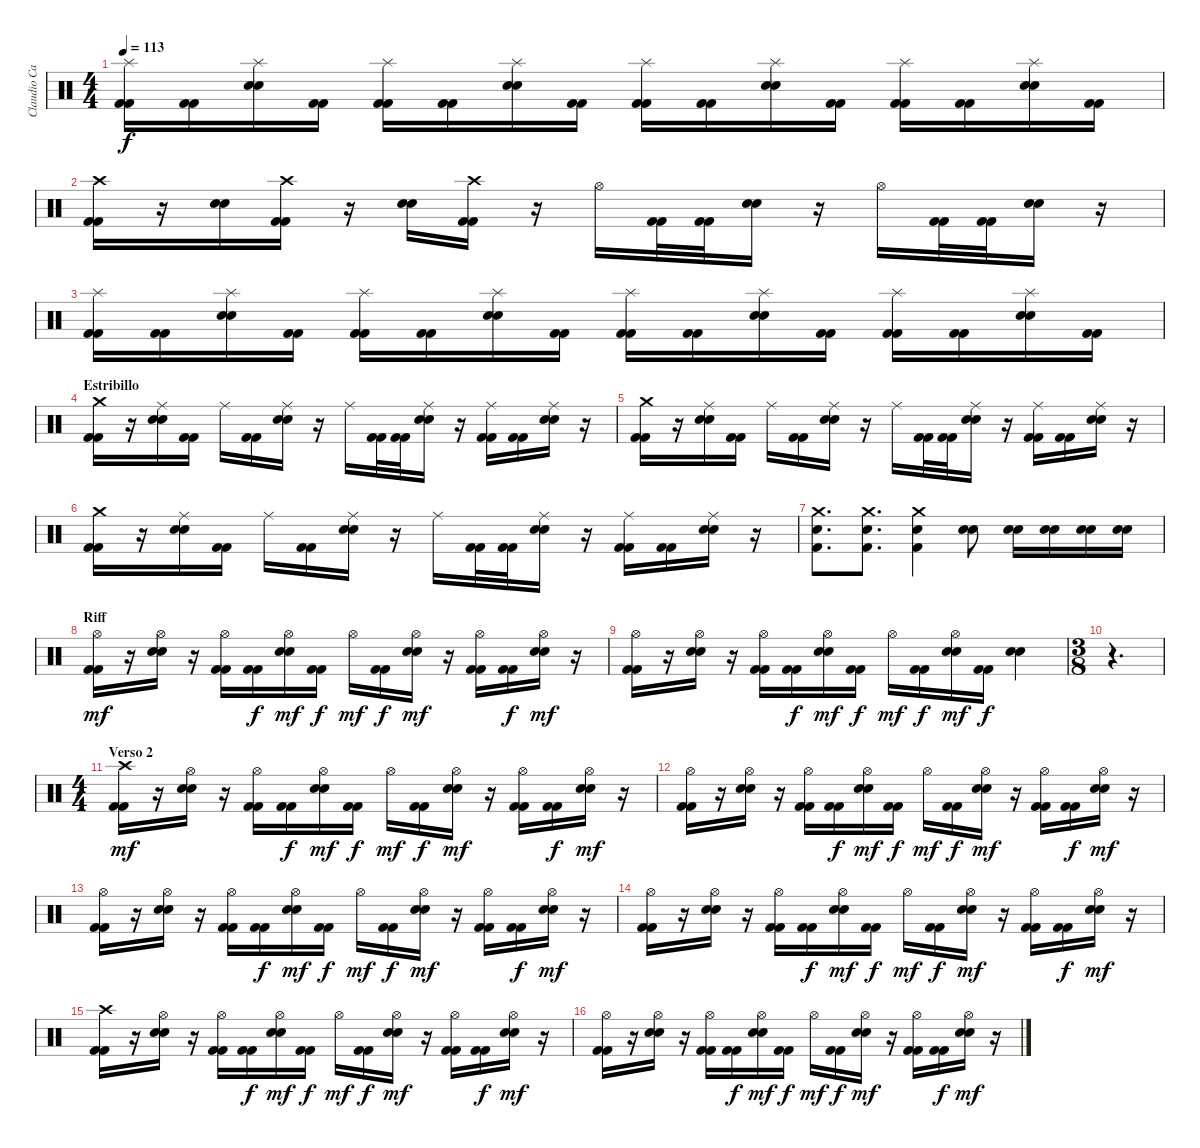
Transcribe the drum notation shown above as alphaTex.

\track ("Claudio Cardaci (bateria)" "Claudio Ca") {instrument percussion}
\staff {score}
\articulation defaults
\ts (4 4)
\tempo 113
\clef neutral
\ks c
("Splash (hit)" "Kick (hit) 2" "Kick (hit) 2").16{dy f} ("Kick (hit) 2" "Kick (hit) 2").16 ("Splash (hit)" "Snare (hit) 2" "Snare (hit) 2").16 ("Kick (hit) 2" "Kick (hit) 2").16 ("Splash (hit)" "Kick (hit) 2" "Kick (hit) 2").16 ("Kick (hit) 2" "Kick (hit) 2").16 ("Splash (hit)" "Snare (hit) 2" "Snare (hit) 2").16 ("Kick (hit) 2" "Kick (hit) 2").16 ("Splash (hit)" "Kick (hit) 2" "Kick (hit) 2").16 ("Kick (hit) 2" "Kick (hit) 2").16 ("Splash (hit)" "Snare (hit) 2" "Snare (hit) 2").16 ("Kick (hit) 2" "Kick (hit) 2").16 ("Splash (hit)" "Kick (hit) 2" "Kick (hit) 2").16 ("Kick (hit) 2" "Kick (hit) 2").16 ("Splash (hit)" "Snare (hit) 2" "Snare (hit) 2").16 ("Kick (hit) 2" "Kick (hit) 2").16 |
("Crash high (hit)" "Kick (hit) 2" "Kick (hit) 2").16 r.16 ("Snare (hit) 2" "Snare (hit) 2").16 ("Crash high (hit)" "Kick (hit) 2" "Kick (hit) 2").16 r.16 ("Snare (hit) 2" "Snare (hit) 2").16 ("Crash high (hit)" "Kick (hit) 2" "Kick (hit) 2").16 r.16 "Hi-Hat (open)".16 ("Kick (hit) 2" "Kick (hit) 2").32 ("Kick (hit) 2" "Kick (hit) 2").32 ("Snare (hit) 2" "Snare (hit) 2").16 r.16 "Hi-Hat (open)".16 ("Kick (hit) 2" "Kick (hit) 2").32 ("Kick (hit) 2" "Kick (hit) 2").32 ("Snare (hit) 2" "Snare (hit) 2").16 r.16 |
("Splash (hit)" "Kick (hit) 2" "Kick (hit) 2").16 ("Kick (hit) 2" "Kick (hit) 2").16 ("Splash (hit)" "Snare (hit) 2" "Snare (hit) 2").16 ("Kick (hit) 2" "Kick (hit) 2").16 ("Splash (hit)" "Kick (hit) 2" "Kick (hit) 2").16 ("Kick (hit) 2" "Kick (hit) 2").16 ("Splash (hit)" "Snare (hit) 2" "Snare (hit) 2").16 ("Kick (hit) 2" "Kick (hit) 2").16 ("Splash (hit)" "Kick (hit) 2" "Kick (hit) 2").16 ("Kick (hit) 2" "Kick (hit) 2").16 ("Splash (hit)" "Snare (hit) 2" "Snare (hit) 2").16 ("Kick (hit) 2" "Kick (hit) 2").16 ("Splash (hit)" "Kick (hit) 2" "Kick (hit) 2").16 ("Kick (hit) 2" "Kick (hit) 2").16 ("Splash (hit)" "Snare (hit) 2" "Snare (hit) 2").16 ("Kick (hit) 2" "Kick (hit) 2").16 |
\section ("" "Estribillo")
("Crash medium (hit)" "Kick (hit) 2" "Kick (hit) 2").16 r.16 ("Ride (middle)" "Snare (hit) 2" "Snare (hit) 2").16 ("Kick (hit) 2" "Kick (hit) 2").16 "Ride (middle)".16 ("Kick (hit) 2" "Kick (hit) 2").16 ("Ride (middle)" "Snare (hit) 2" "Snare (hit) 2").16 r.16 "Ride (middle)".16 ("Kick (hit) 2" "Kick (hit) 2").32 ("Kick (hit) 2" "Kick (hit) 2").32 ("Ride (middle)" "Snare (hit) 2" "Snare (hit) 2").16 r.16 ("Ride (middle)" "Kick (hit) 2" "Kick (hit) 2").16 ("Kick (hit) 2" "Kick (hit) 2").16 ("Ride (middle)" "Snare (hit) 2" "Snare (hit) 2").16 r.16 |
("Crash medium (hit)" "Kick (hit) 2" "Kick (hit) 2").16 r.16 ("Ride (middle)" "Snare (hit) 2" "Snare (hit) 2").16 ("Kick (hit) 2" "Kick (hit) 2").16 "Ride (middle)".16 ("Kick (hit) 2" "Kick (hit) 2").16 ("Ride (middle)" "Snare (hit) 2" "Snare (hit) 2").16 r.16 "Ride (middle)".16 ("Kick (hit) 2" "Kick (hit) 2").32 ("Kick (hit) 2" "Kick (hit) 2").32 ("Ride (middle)" "Snare (hit) 2" "Snare (hit) 2").16 r.16 ("Ride (middle)" "Kick (hit) 2" "Kick (hit) 2").16 ("Kick (hit) 2" "Kick (hit) 2").16 ("Ride (middle)" "Snare (hit) 2" "Snare (hit) 2").16 r.16 |
("Crash medium (hit)" "Kick (hit) 2" "Kick (hit) 2").16 r.16 ("Ride (middle)" "Snare (hit) 2" "Snare (hit) 2").16 ("Kick (hit) 2" "Kick (hit) 2").16 "Ride (middle)".16 ("Kick (hit) 2" "Kick (hit) 2").16 ("Ride (middle)" "Snare (hit) 2" "Snare (hit) 2").16 r.16 "Ride (middle)".16 ("Kick (hit) 2" "Kick (hit) 2").32 ("Kick (hit) 2" "Kick (hit) 2").32 ("Ride (middle)" "Snare (hit) 2" "Snare (hit) 2").16 r.16 ("Ride (middle)" "Kick (hit) 2" "Kick (hit) 2").16 ("Kick (hit) 2" "Kick (hit) 2").16 ("Ride (middle)" "Snare (hit) 2" "Snare (hit) 2").16 r.16 |
("Crash medium (hit)" "Snare (hit) 2" "Kick (hit) 2").8{d} ("Crash medium (hit)" "Snare (hit) 2" "Kick (hit) 2").8{d} ("Crash medium (hit)" "Snare (hit) 2" "Kick (hit) 2").4 ("Electric Snare (hit)" "Electric Snare (hit)").8 ("Snare (hit) 2" "Snare (hit) 2").16 ("Snare (hit) 2" "Snare (hit) 2").16 ("Snare (hit) 2" "Snare (hit) 2").16 ("Snare (hit) 2" "Snare (hit) 2").16 |
\section ("" "Riff")
("Hi-Hat (open)" "Kick (hit) 2" "Kick (hit) 2").16{dy mf} r.16 ("Hi-Hat (open)" "Snare (hit) 2" "Snare (hit) 2").16 r.16 ("Hi-Hat (open)" "Kick (hit) 2" "Kick (hit) 2").16 ("Kick (hit) 2" "Kick (hit) 2").16{dy f} ("Hi-Hat (open)" "Snare (hit) 2" "Snare (hit) 2").16{dy mf} ("Kick (hit) 2" "Kick (hit) 2").16{dy f} "Hi-Hat (open)".16{dy mf} ("Kick (hit) 2" "Kick (hit) 2").16{dy f} ("Hi-Hat (open)" "Snare (hit) 2" "Snare (hit) 2").16{dy mf} r.16 ("Hi-Hat (open)" "Kick (hit) 2" "Kick (hit) 2").16 ("Kick (hit) 2" "Kick (hit) 2").16{dy f} ("Hi-Hat (open)" "Snare (hit) 2" "Snare (hit) 2").16{dy mf} r.16 |
("Hi-Hat (open)" "Kick (hit) 2" "Kick (hit) 2").16 r.16 ("Hi-Hat (open)" "Snare (hit) 2" "Snare (hit) 2").16 r.16 ("Hi-Hat (open)" "Kick (hit) 2" "Kick (hit) 2").16 ("Kick (hit) 2" "Kick (hit) 2").16{dy f} ("Hi-Hat (open)" "Snare (hit) 2" "Snare (hit) 2").16{dy mf} ("Kick (hit) 2" "Kick (hit) 2").16{dy f} "Hi-Hat (open)".16{dy mf} ("Kick (hit) 2" "Kick (hit) 2").16{dy f} ("Hi-Hat (open)" "Snare (hit) 2" "Snare (hit) 2").16{dy mf} ("Kick (hit) 2" "Kick (hit) 2").16{dy f} ("Snare (hit) 2" "Snare (hit) 2").4 |
\ts (3 8)
r.4{d} |
\ts (4 4)
\section ("" "Verso 2")
("Crash high (hit)" "Kick (hit) 2" "Kick (hit) 2").16{dy mf} r.16 ("Hi-Hat (open)" "Snare (hit) 2" "Snare (hit) 2").16 r.16 ("Hi-Hat (open)" "Kick (hit) 2" "Kick (hit) 2").16 ("Kick (hit) 2" "Kick (hit) 2").16{dy f} ("Hi-Hat (open)" "Snare (hit) 2" "Snare (hit) 2").16{dy mf} ("Kick (hit) 2" "Kick (hit) 2").16{dy f} "Hi-Hat (open)".16{dy mf} ("Kick (hit) 2" "Kick (hit) 2").16{dy f} ("Hi-Hat (open)" "Snare (hit) 2" "Snare (hit) 2").16{dy mf} r.16 ("Hi-Hat (open)" "Kick (hit) 2" "Kick (hit) 2").16 ("Kick (hit) 2" "Kick (hit) 2").16{dy f} ("Hi-Hat (open)" "Snare (hit) 2" "Snare (hit) 2").16{dy mf} r.16 |
("Hi-Hat (open)" "Kick (hit) 2" "Kick (hit) 2").16 r.16 ("Hi-Hat (open)" "Snare (hit) 2" "Snare (hit) 2").16 r.16 ("Hi-Hat (open)" "Kick (hit) 2" "Kick (hit) 2").16 ("Kick (hit) 2" "Kick (hit) 2").16{dy f} ("Hi-Hat (open)" "Snare (hit) 2" "Snare (hit) 2").16{dy mf} ("Kick (hit) 2" "Kick (hit) 2").16{dy f} "Hi-Hat (open)".16{dy mf} ("Kick (hit) 2" "Kick (hit) 2").16{dy f} ("Hi-Hat (open)" "Snare (hit) 2" "Snare (hit) 2").16{dy mf} r.16 ("Hi-Hat (open)" "Kick (hit) 2" "Kick (hit) 2").16 ("Kick (hit) 2" "Kick (hit) 2").16{dy f} ("Hi-Hat (open)" "Snare (hit) 2" "Snare (hit) 2").16{dy mf} r.16 |
("Hi-Hat (open)" "Kick (hit) 2" "Kick (hit) 2").16 r.16 ("Hi-Hat (open)" "Snare (hit) 2" "Snare (hit) 2").16 r.16 ("Hi-Hat (open)" "Kick (hit) 2" "Kick (hit) 2").16 ("Kick (hit) 2" "Kick (hit) 2").16{dy f} ("Hi-Hat (open)" "Snare (hit) 2" "Snare (hit) 2").16{dy mf} ("Kick (hit) 2" "Kick (hit) 2").16{dy f} "Hi-Hat (open)".16{dy mf} ("Kick (hit) 2" "Kick (hit) 2").16{dy f} ("Hi-Hat (open)" "Snare (hit) 2" "Snare (hit) 2").16{dy mf} r.16 ("Hi-Hat (open)" "Kick (hit) 2" "Kick (hit) 2").16 ("Kick (hit) 2" "Kick (hit) 2").16{dy f} ("Hi-Hat (open)" "Snare (hit) 2" "Snare (hit) 2").16{dy mf} r.16 |
("Hi-Hat (open)" "Kick (hit) 2" "Kick (hit) 2").16 r.16 ("Hi-Hat (open)" "Snare (hit) 2" "Snare (hit) 2").16 r.16 ("Hi-Hat (open)" "Kick (hit) 2" "Kick (hit) 2").16 ("Kick (hit) 2" "Kick (hit) 2").16{dy f} ("Hi-Hat (open)" "Snare (hit) 2" "Snare (hit) 2").16{dy mf} ("Kick (hit) 2" "Kick (hit) 2").16{dy f} "Hi-Hat (open)".16{dy mf} ("Kick (hit) 2" "Kick (hit) 2").16{dy f} ("Hi-Hat (open)" "Snare (hit) 2" "Snare (hit) 2").16{dy mf} r.16 ("Hi-Hat (open)" "Kick (hit) 2" "Kick (hit) 2").16 ("Kick (hit) 2" "Kick (hit) 2").16{dy f} ("Hi-Hat (open)" "Snare (hit) 2" "Snare (hit) 2").16{dy mf} r.16 |
("Crash high (hit)" "Kick (hit) 2" "Kick (hit) 2").16 r.16 ("Hi-Hat (open)" "Snare (hit) 2" "Snare (hit) 2").16 r.16 ("Hi-Hat (open)" "Kick (hit) 2" "Kick (hit) 2").16 ("Kick (hit) 2" "Kick (hit) 2").16{dy f} ("Hi-Hat (open)" "Snare (hit) 2" "Snare (hit) 2").16{dy mf} ("Kick (hit) 2" "Kick (hit) 2").16{dy f} "Hi-Hat (open)".16{dy mf} ("Kick (hit) 2" "Kick (hit) 2").16{dy f} ("Hi-Hat (open)" "Snare (hit) 2" "Snare (hit) 2").16{dy mf} r.16 ("Hi-Hat (open)" "Kick (hit) 2" "Kick (hit) 2").16 ("Kick (hit) 2" "Kick (hit) 2").16{dy f} ("Hi-Hat (open)" "Snare (hit) 2" "Snare (hit) 2").16{dy mf} r.16 |
("Hi-Hat (open)" "Kick (hit) 2" "Kick (hit) 2").16 r.16 ("Hi-Hat (open)" "Snare (hit) 2" "Snare (hit) 2").16 r.16 ("Hi-Hat (open)" "Kick (hit) 2" "Kick (hit) 2").16 ("Kick (hit) 2" "Kick (hit) 2").16{dy f} ("Hi-Hat (open)" "Snare (hit) 2" "Snare (hit) 2").16{dy mf} ("Kick (hit) 2" "Kick (hit) 2").16{dy f} "Hi-Hat (open)".16{dy mf} ("Kick (hit) 2" "Kick (hit) 2").16{dy f} ("Hi-Hat (open)" "Snare (hit) 2" "Snare (hit) 2").16{dy mf} r.16 ("Hi-Hat (open)" "Kick (hit) 2" "Kick (hit) 2").16 ("Kick (hit) 2" "Kick (hit) 2").16{dy f} ("Hi-Hat (open)" "Snare (hit) 2" "Snare (hit) 2").16{dy mf} r.16
